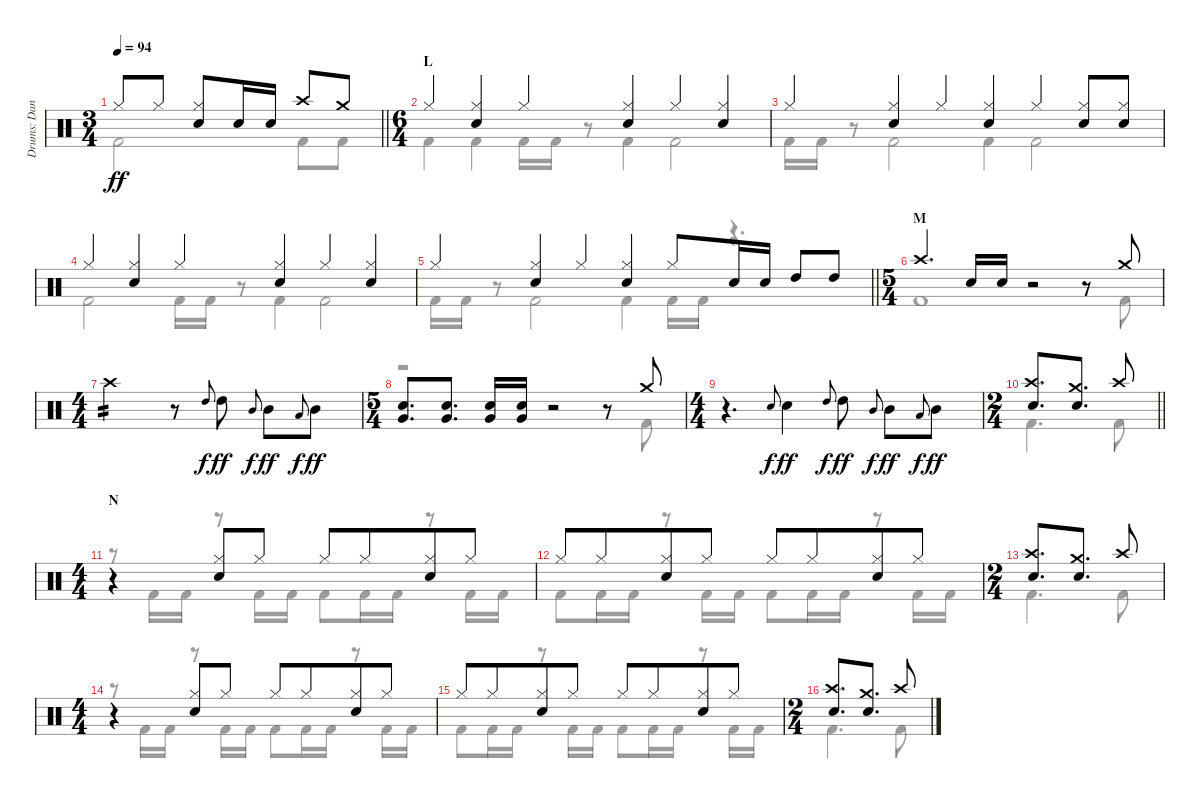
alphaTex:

\track ("Drums: Dana" "Drums: Dan") {instrument percussion}
\staff {score}
\articulation defaults
\voice
\ts (3 4)
\tempo 94
\clef neutral
\barLineRight lightlight
\ks c "Hi-Hat (closed)".8{dy ff} "Hi-Hat (closed)".8
("Hi-Hat (closed)" "Snare (hit) 2").8 "Snare (hit) 2".16 "Snare (hit) 2".16 "Crash high (hit)".8{beam merge} "Crash medium (hit)".8 |
\ts (6 4)
\section ("" "L")
"Hi-Hat (closed)".4 ("Hi-Hat (closed)" "Snare (hit) 2").4 "Hi-Hat (closed)".4 ("Hi-Hat (closed)" "Snare (hit) 2").4 "Hi-Hat (closed)".4 ("Hi-Hat (closed)" "Snare (hit) 2").4 |
"Hi-Hat (closed)".4 ("Hi-Hat (closed)" "Snare (hit) 2").4 "Hi-Hat (closed)".4 ("Hi-Hat (closed)" "Snare (hit) 2").4 "Hi-Hat (closed)".4 ("Hi-Hat (closed)" "Snare (hit) 2").8 ("Hi-Hat (closed)" "Snare (hit) 2").8 |
"Hi-Hat (closed)".4 ("Hi-Hat (closed)" "Snare (hit) 2").4 "Hi-Hat (closed)".4 ("Hi-Hat (closed)" "Snare (hit) 2").4 "Hi-Hat (closed)".4 ("Hi-Hat (closed)" "Snare (hit) 2").4 |
\barLineRight lightlight "Hi-Hat (closed)".4
("Hi-Hat (closed)" "Snare (hit) 2").4 "Hi-Hat (closed)".4 ("Hi-Hat (closed)" "Snare (hit) 2").4 "Hi-Hat (closed)".8 "Snare (hit) 2".16 "Snare (hit) 2".16 "High Tom (hit)".8 "High Tom (hit)".8 |
\ts (5 4)
\section ("" "M")
"Crash high (hit)".4{d} "Snare (hit) 2".16 "Snare (hit) 2".16 r.2 r.8 "Crash medium (hit)".8 |
\ts (4 4)
"Crash high (hit)".2{tp 2} r.8 "High Tom (hit)".8{gr onbeat dy f} "High Tom (hit)".8{dy ff} "Mid Tom (hit)".8{gr onbeat dy f} "Mid Tom (hit)".8{dy ff} "Low Tom (hit)".8{gr onbeat dy f} "Mid Tom (hit)".8{dy ff} |
\ts (5 4)
("Snare (hit) 2" "Very Low Tom (hit)").8{d} ("Snare (hit) 2" "Very Low Tom (hit)").8{d} ("Snare (hit) 2" "Very Low Tom (hit)").16 ("Snare (hit) 2" "Very Low Tom (hit)").16 r.2 r.8 "Crash medium (hit)".8 |
\ts (4 4)
r.4{d} "Electric Snare (hit)".8{gr onbeat dy f} "Snare (hit) 2".4{dy ff} "High Tom (hit)".8{gr onbeat dy f} "High Tom (hit)".8{dy ff} "Mid Tom (hit)".8{gr onbeat dy f} "Mid Tom (hit)".8{dy ff} "Low Tom (hit)".8{gr onbeat dy f} "Mid Tom (hit)".8{dy ff} |
\ts (2 4)
\barLineRight lightlight
("Crash high (hit)" "Snare (hit) 2").8{d} ("Crash medium (hit)" "Snare (hit) 2").8{d} "Crash high (hit)".8 |
\ts (4 4)
\section ("" "N")
r.4 ("Hi-Hat (closed)" "Snare (hit) 2").8 "Hi-Hat (closed)".8 "Hi-Hat (closed)".8 "Hi-Hat (closed)".8{beam merge} ("Hi-Hat (closed)" "Snare (hit) 2").8 "Hi-Hat (closed)".8 |
"Hi-Hat (closed)".8 "Hi-Hat (closed)".8{beam merge} ("Hi-Hat (closed)" "Snare (hit) 2").8 "Hi-Hat (closed)".8 "Hi-Hat (closed)".8 "Hi-Hat (closed)".8{beam merge} ("Hi-Hat (closed)" "Snare (hit) 2").8 "Hi-Hat (closed)".8 |
\ts (2 4)
("Crash high (hit)" "Snare (hit) 2").8{d} ("Crash medium (hit)" "Snare (hit) 2").8{d} "Crash high (hit)".8 |
\ts (4 4)
r.4 ("Hi-Hat (closed)" "Snare (hit) 2").8 "Hi-Hat (closed)".8 "Hi-Hat (closed)".8 "Hi-Hat (closed)".8{beam merge} ("Hi-Hat (closed)" "Snare (hit) 2").8 "Hi-Hat (closed)".8 |
"Hi-Hat (closed)".8 "Hi-Hat (closed)".8{beam merge} ("Hi-Hat (closed)" "Snare (hit) 2").8 "Hi-Hat (closed)".8 "Hi-Hat (closed)".8 "Hi-Hat (closed)".8{beam merge} ("Hi-Hat (closed)" "Snare (hit) 2").8 "Hi-Hat (closed)".8 |
\ts (2 4)
("Crash high (hit)" "Snare (hit) 2").8{d} ("Crash medium (hit)" "Snare (hit) 2").8{d} "Crash high (hit)".8
\voice
\clef neutral
\ottava regular
\simile none
\barLineRight lightlight
\ks c "Kick (hit) 2".2{dy ff} "Kick (hit) 2".8 "Kick (hit) 2".8
|
"Kick (hit) 2".4 "Kick (hit) 2".4 "Kick (hit) 2".16 "Kick (hit) 2".16 r.8 "Kick (hit) 2".4 "Kick (hit) 2".2 |
"Kick (hit) 2".16 "Kick (hit) 2".16 r.8 "Kick (hit) 2".2 "Kick (hit) 2".4 "Kick (hit) 2".2 |
"Kick (hit) 2".2 "Kick (hit) 2".16 "Kick (hit) 2".16 r.8 "Kick (hit) 2".4 "Kick (hit) 2".2 |
\barLineRight lightlight "Kick (hit) 2".16 "Kick (hit) 2".16
r.8 "Kick (hit) 2".2 "Kick (hit) 2".4 "Kick (hit) 2".16 "Kick (hit) 2".16 r.4{d} |
"Kick (hit) 2".1 r.8 "Kick (hit) 2".8 |
|
r.1 r.8 "Kick (hit) 2".8 |
|
\barLineRight lightlight "Kick (hit) 2".4{d} "Kick (hit) 2".8
|
r.8 "Kick (hit) 2".16 "Kick (hit) 2".16 r.8 "Kick (hit) 2".16 "Kick (hit) 2".16 "Kick (hit) 2".8 "Kick (hit) 2".16 "Kick (hit) 2".16 r.8 "Kick (hit) 2".16 "Kick (hit) 2".16 |
"Kick (hit) 2".8 "Kick (hit) 2".16 "Kick (hit) 2".16 r.8 "Kick (hit) 2".16 "Kick (hit) 2".16 "Kick (hit) 2".8 "Kick (hit) 2".16 "Kick (hit) 2".16 r.8 "Kick (hit) 2".16 "Kick (hit) 2".16 |
"Kick (hit) 2".4{d} "Kick (hit) 2".8 |
r.8 "Kick (hit) 2".16 "Kick (hit) 2".16 r.8 "Kick (hit) 2".16 "Kick (hit) 2".16 "Kick (hit) 2".8 "Kick (hit) 2".16 "Kick (hit) 2".16 r.8 "Kick (hit) 2".16 "Kick (hit) 2".16 |
"Kick (hit) 2".8 "Kick (hit) 2".16 "Kick (hit) 2".16 r.8 "Kick (hit) 2".16 "Kick (hit) 2".16 "Kick (hit) 2".8 "Kick (hit) 2".16 "Kick (hit) 2".16 r.8 "Kick (hit) 2".16 "Kick (hit) 2".16 |
"Kick (hit) 2".4{d} "Kick (hit) 2".8
